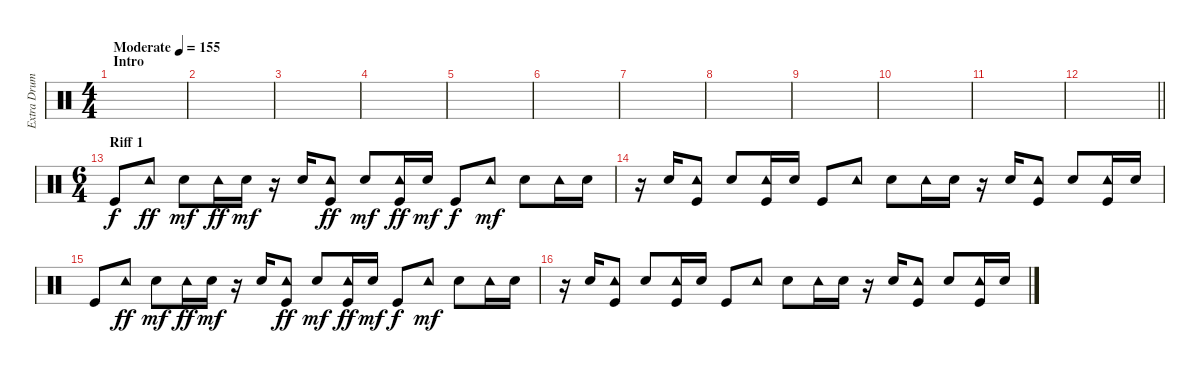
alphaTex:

\track ("Extra Drums" "Extra Drum") {instrument percussion}
\staff {score}
\articulation defaults
\ts (4 4)
\section ("" "Intro")
\tempo (155 "Moderate")
\clef neutral
\ks c
|
|
|
|
|
|
|
|
|
|
|
\barLineRight lightlight
|
\ts (6 4)
\section ("" "Riff 1")
"Kick (hit)".8 "Tambourine (hit)".8{dy ff} "Electric Snare (hit)".8{dy mf} "Tambourine (hit)".16{dy ff} "Electric Snare (hit)".16{dy mf} r.16 "Electric Snare (hit)".16 ("Kick (hit)" "Tambourine (hit)").8{dy ff} "Electric Snare (hit)".8{dy mf} ("Kick (hit)" "Tambourine (hit)").16{dy ff} "Electric Snare (hit)".16{dy mf} "Kick (hit)".8{dy f} "Tambourine (hit)".8{dy mf} "Electric Snare (hit)".8 "Tambourine (hit)".16 "Electric Snare (hit)".16 |
r.16 "Electric Snare (hit)".16 ("Kick (hit)" "Tambourine (hit)").8 "Electric Snare (hit)".8 ("Kick (hit)" "Tambourine (hit)").16 "Electric Snare (hit)".16 "Kick (hit)".8 "Tambourine (hit)".8 "Electric Snare (hit)".8 "Tambourine (hit)".16 "Electric Snare (hit)".16 r.16 "Electric Snare (hit)".16 ("Kick (hit)" "Tambourine (hit)").8 "Electric Snare (hit)".8 ("Kick (hit)" "Tambourine (hit)").16 "Electric Snare (hit)".16 |
"Kick (hit)".8 "Tambourine (hit)".8{dy ff} "Electric Snare (hit)".8{dy mf} "Tambourine (hit)".16{dy ff} "Electric Snare (hit)".16{dy mf} r.16 "Electric Snare (hit)".16 ("Kick (hit)" "Tambourine (hit)").8{dy ff} "Electric Snare (hit)".8{dy mf} ("Kick (hit)" "Tambourine (hit)").16{dy ff} "Electric Snare (hit)".16{dy mf} "Kick (hit)".8{dy f} "Tambourine (hit)".8{dy mf} "Electric Snare (hit)".8 "Tambourine (hit)".16 "Electric Snare (hit)".16 |
r.16 "Electric Snare (hit)".16 ("Kick (hit)" "Tambourine (hit)").8 "Electric Snare (hit)".8 ("Kick (hit)" "Tambourine (hit)").16 "Electric Snare (hit)".16 "Kick (hit)".8 "Tambourine (hit)".8 "Electric Snare (hit)".8 "Tambourine (hit)".16 "Electric Snare (hit)".16 r.16 "Electric Snare (hit)".16 ("Kick (hit)" "Tambourine (hit)").8 "Electric Snare (hit)".8 ("Kick (hit)" "Tambourine (hit)").16 "Electric Snare (hit)".16
